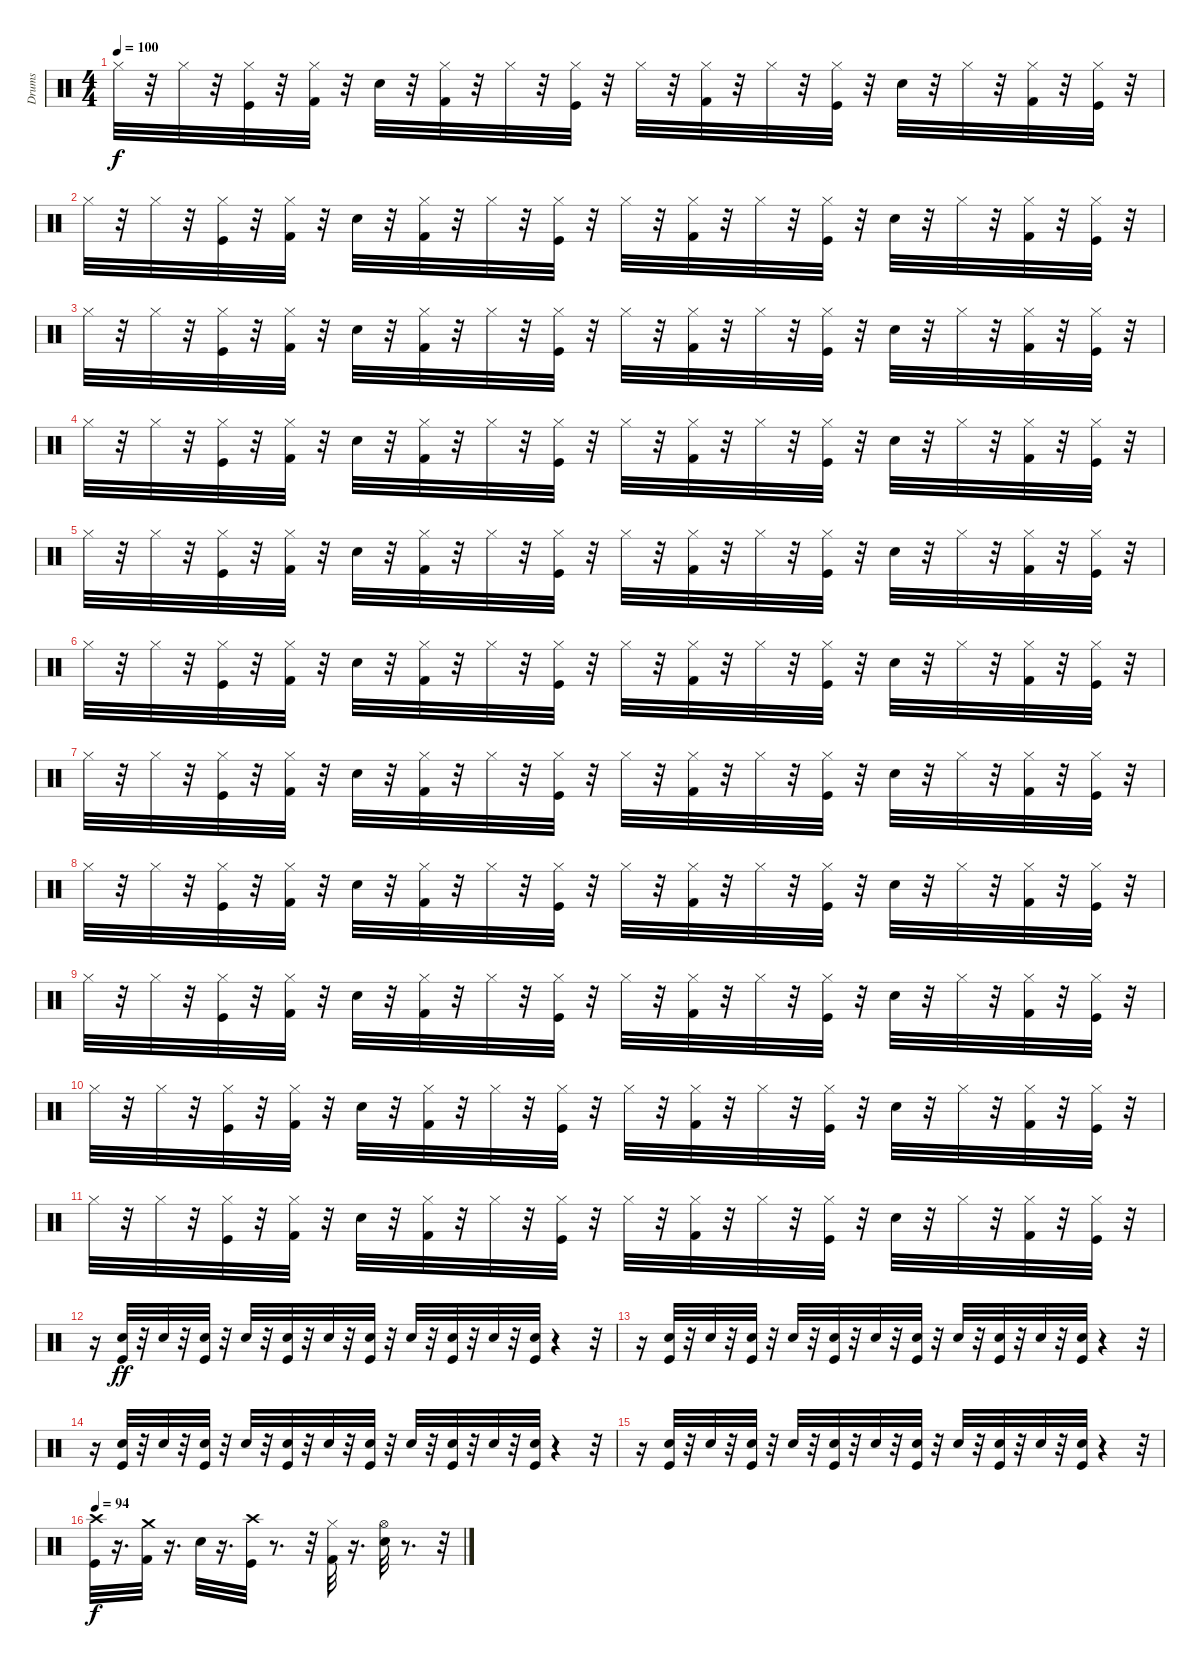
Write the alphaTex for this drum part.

\track ("Drums" "Drums") {instrument percussion}
\staff {score}
\articulation defaults
\ts (4 4)
\tempo 100
\clef neutral
\ks c "Hi-Hat (closed)".32{dy f}
r.32 "Hi-Hat (closed)".32 r.32 ("Hi-Hat (closed)" "Kick (hit)").32 r.32 ("Hi-Hat (closed)" "Kick (hit) 2").32 r.32 "Electric Snare (hit)".32 r.32 ("Hi-Hat (closed)" "Kick (hit) 2").32 r.32 "Hi-Hat (closed)".32 r.32 ("Hi-Hat (closed)" "Kick (hit)").32 r.32 "Hi-Hat (closed)".32 r.32 ("Hi-Hat (closed)" "Kick (hit) 2").32 r.32 "Hi-Hat (closed)".32 r.32 ("Hi-Hat (closed)" "Kick (hit)").32 r.32 "Electric Snare (hit)".32 r.32 "Hi-Hat (closed)".32 r.32 ("Hi-Hat (closed)" "Kick (hit) 2").32 r.32 ("Hi-Hat (closed)" "Kick (hit)").32 r.32 |
"Hi-Hat (closed)".32 r.32 "Hi-Hat (closed)".32 r.32 ("Hi-Hat (closed)" "Kick (hit)").32 r.32 ("Hi-Hat (closed)" "Kick (hit) 2").32 r.32 "Electric Snare (hit)".32 r.32 ("Hi-Hat (closed)" "Kick (hit) 2").32 r.32 "Hi-Hat (closed)".32 r.32 ("Hi-Hat (closed)" "Kick (hit)").32 r.32 "Hi-Hat (closed)".32 r.32 ("Hi-Hat (closed)" "Kick (hit) 2").32 r.32 "Hi-Hat (closed)".32 r.32 ("Hi-Hat (closed)" "Kick (hit)").32 r.32 "Electric Snare (hit)".32 r.32 "Hi-Hat (closed)".32 r.32 ("Hi-Hat (closed)" "Kick (hit) 2").32 r.32 ("Hi-Hat (closed)" "Kick (hit)").32 r.32 |
"Hi-Hat (closed)".32 r.32 "Hi-Hat (closed)".32 r.32 ("Hi-Hat (closed)" "Kick (hit)").32 r.32 ("Hi-Hat (closed)" "Kick (hit) 2").32 r.32 "Electric Snare (hit)".32 r.32 ("Hi-Hat (closed)" "Kick (hit) 2").32 r.32 "Hi-Hat (closed)".32 r.32 ("Hi-Hat (closed)" "Kick (hit)").32 r.32 "Hi-Hat (closed)".32 r.32 ("Hi-Hat (closed)" "Kick (hit) 2").32 r.32 "Hi-Hat (closed)".32 r.32 ("Hi-Hat (closed)" "Kick (hit)").32 r.32 "Electric Snare (hit)".32 r.32 "Hi-Hat (closed)".32 r.32 ("Hi-Hat (closed)" "Kick (hit) 2").32 r.32 ("Hi-Hat (closed)" "Kick (hit)").32 r.32 |
"Hi-Hat (closed)".32 r.32 "Hi-Hat (closed)".32 r.32 ("Hi-Hat (closed)" "Kick (hit)").32 r.32 ("Hi-Hat (closed)" "Kick (hit) 2").32 r.32 "Electric Snare (hit)".32 r.32 ("Hi-Hat (closed)" "Kick (hit) 2").32 r.32 "Hi-Hat (closed)".32 r.32 ("Hi-Hat (closed)" "Kick (hit)").32 r.32 "Hi-Hat (closed)".32 r.32 ("Hi-Hat (closed)" "Kick (hit) 2").32 r.32 "Hi-Hat (closed)".32 r.32 ("Hi-Hat (closed)" "Kick (hit)").32 r.32 "Electric Snare (hit)".32 r.32 "Hi-Hat (closed)".32 r.32 ("Hi-Hat (closed)" "Kick (hit) 2").32 r.32 ("Hi-Hat (closed)" "Kick (hit)").32 r.32 |
"Hi-Hat (closed)".32 r.32 "Hi-Hat (closed)".32 r.32 ("Hi-Hat (closed)" "Kick (hit)").32 r.32 ("Hi-Hat (closed)" "Kick (hit) 2").32 r.32 "Electric Snare (hit)".32 r.32 ("Hi-Hat (closed)" "Kick (hit) 2").32 r.32 "Hi-Hat (closed)".32 r.32 ("Hi-Hat (closed)" "Kick (hit)").32 r.32 "Hi-Hat (closed)".32 r.32 ("Hi-Hat (closed)" "Kick (hit) 2").32 r.32 "Hi-Hat (closed)".32 r.32 ("Hi-Hat (closed)" "Kick (hit)").32 r.32 "Electric Snare (hit)".32 r.32 "Hi-Hat (closed)".32 r.32 ("Hi-Hat (closed)" "Kick (hit) 2").32 r.32 ("Hi-Hat (closed)" "Kick (hit)").32 r.32 |
"Hi-Hat (closed)".32 r.32 "Hi-Hat (closed)".32 r.32 ("Hi-Hat (closed)" "Kick (hit)").32 r.32 ("Hi-Hat (closed)" "Kick (hit) 2").32 r.32 "Electric Snare (hit)".32 r.32 ("Hi-Hat (closed)" "Kick (hit) 2").32 r.32 "Hi-Hat (closed)".32 r.32 ("Hi-Hat (closed)" "Kick (hit)").32 r.32 "Hi-Hat (closed)".32 r.32 ("Hi-Hat (closed)" "Kick (hit) 2").32 r.32 "Hi-Hat (closed)".32 r.32 ("Hi-Hat (closed)" "Kick (hit)").32 r.32 "Electric Snare (hit)".32 r.32 "Hi-Hat (closed)".32 r.32 ("Hi-Hat (closed)" "Kick (hit) 2").32 r.32 ("Hi-Hat (closed)" "Kick (hit)").32 r.32 |
"Hi-Hat (closed)".32 r.32 "Hi-Hat (closed)".32 r.32 ("Hi-Hat (closed)" "Kick (hit)").32 r.32 ("Hi-Hat (closed)" "Kick (hit) 2").32 r.32 "Electric Snare (hit)".32 r.32 ("Hi-Hat (closed)" "Kick (hit) 2").32 r.32 "Hi-Hat (closed)".32 r.32 ("Hi-Hat (closed)" "Kick (hit)").32 r.32 "Hi-Hat (closed)".32 r.32 ("Hi-Hat (closed)" "Kick (hit) 2").32 r.32 "Hi-Hat (closed)".32 r.32 ("Hi-Hat (closed)" "Kick (hit)").32 r.32 "Electric Snare (hit)".32 r.32 "Hi-Hat (closed)".32 r.32 ("Hi-Hat (closed)" "Kick (hit) 2").32 r.32 ("Hi-Hat (closed)" "Kick (hit)").32 r.32 |
"Hi-Hat (closed)".32 r.32 "Hi-Hat (closed)".32 r.32 ("Hi-Hat (closed)" "Kick (hit)").32 r.32 ("Hi-Hat (closed)" "Kick (hit) 2").32 r.32 "Electric Snare (hit)".32 r.32 ("Hi-Hat (closed)" "Kick (hit) 2").32 r.32 "Hi-Hat (closed)".32 r.32 ("Hi-Hat (closed)" "Kick (hit)").32 r.32 "Hi-Hat (closed)".32 r.32 ("Hi-Hat (closed)" "Kick (hit) 2").32 r.32 "Hi-Hat (closed)".32 r.32 ("Hi-Hat (closed)" "Kick (hit)").32 r.32 "Electric Snare (hit)".32 r.32 "Hi-Hat (closed)".32 r.32 ("Hi-Hat (closed)" "Kick (hit) 2").32 r.32 ("Hi-Hat (closed)" "Kick (hit)").32 r.32 |
"Hi-Hat (closed)".32 r.32 "Hi-Hat (closed)".32 r.32 ("Hi-Hat (closed)" "Kick (hit)").32 r.32 ("Hi-Hat (closed)" "Kick (hit) 2").32 r.32 "Electric Snare (hit)".32 r.32 ("Hi-Hat (closed)" "Kick (hit) 2").32 r.32 "Hi-Hat (closed)".32 r.32 ("Hi-Hat (closed)" "Kick (hit)").32 r.32 "Hi-Hat (closed)".32 r.32 ("Hi-Hat (closed)" "Kick (hit) 2").32 r.32 "Hi-Hat (closed)".32 r.32 ("Hi-Hat (closed)" "Kick (hit)").32 r.32 "Electric Snare (hit)".32 r.32 "Hi-Hat (closed)".32 r.32 ("Hi-Hat (closed)" "Kick (hit) 2").32 r.32 ("Hi-Hat (closed)" "Kick (hit)").32 r.32 |
"Hi-Hat (closed)".32 r.32 "Hi-Hat (closed)".32 r.32 ("Hi-Hat (closed)" "Kick (hit)").32 r.32 ("Hi-Hat (closed)" "Kick (hit) 2").32 r.32 "Electric Snare (hit)".32 r.32 ("Hi-Hat (closed)" "Kick (hit) 2").32 r.32 "Hi-Hat (closed)".32 r.32 ("Hi-Hat (closed)" "Kick (hit)").32 r.32 "Hi-Hat (closed)".32 r.32 ("Hi-Hat (closed)" "Kick (hit) 2").32 r.32 "Hi-Hat (closed)".32 r.32 ("Hi-Hat (closed)" "Kick (hit)").32 r.32 "Electric Snare (hit)".32 r.32 "Hi-Hat (closed)".32 r.32 ("Hi-Hat (closed)" "Kick (hit) 2").32 r.32 ("Hi-Hat (closed)" "Kick (hit)").32 r.32 |
"Hi-Hat (closed)".32 r.32 "Hi-Hat (closed)".32 r.32 ("Hi-Hat (closed)" "Kick (hit)").32 r.32 ("Hi-Hat (closed)" "Kick (hit) 2").32 r.32 "Electric Snare (hit)".32 r.32 ("Hi-Hat (closed)" "Kick (hit) 2").32 r.32 "Hi-Hat (closed)".32 r.32 ("Hi-Hat (closed)" "Kick (hit)").32 r.32 "Hi-Hat (closed)".32 r.32 ("Hi-Hat (closed)" "Kick (hit) 2").32 r.32 "Hi-Hat (closed)".32 r.32 ("Hi-Hat (closed)" "Kick (hit)").32 r.32 "Electric Snare (hit)".32 r.32 "Hi-Hat (closed)".32 r.32 ("Hi-Hat (closed)" "Kick (hit) 2").32 r.32 ("Kick (hit)" "Hi-Hat (closed)").32 r.32 |
r.16 ("Snare (hit) 2" "Kick (hit)").32{dy ff} r.32 "Electric Snare (hit)".32 r.32 ("Electric Snare (hit)" "Kick (hit)").32 r.32 "Electric Snare (hit)".32 r.32 ("Electric Snare (hit)" "Kick (hit)").32 r.32 "Electric Snare (hit)".32 r.32 ("Electric Snare (hit)" "Kick (hit)").32 r.32 "Electric Snare (hit)".32 r.32 ("Electric Snare (hit)" "Kick (hit)").32 r.32 "Electric Snare (hit)".32 r.32 ("Electric Snare (hit)" "Kick (hit)").32 r.4 r.32 |
r.16 ("Snare (hit) 2" "Kick (hit)").32 r.32 "Electric Snare (hit)".32 r.32 ("Electric Snare (hit)" "Kick (hit)").32 r.32 "Electric Snare (hit)".32 r.32 ("Electric Snare (hit)" "Kick (hit)").32 r.32 "Electric Snare (hit)".32 r.32 ("Electric Snare (hit)" "Kick (hit)").32 r.32 "Electric Snare (hit)".32 r.32 ("Electric Snare (hit)" "Kick (hit)").32 r.32 "Electric Snare (hit)".32 r.32 ("Electric Snare (hit)" "Kick (hit)").32 r.4 r.32 |
r.16 ("Snare (hit) 2" "Kick (hit)").32 r.32 "Electric Snare (hit)".32 r.32 ("Electric Snare (hit)" "Kick (hit)").32 r.32 "Electric Snare (hit)".32 r.32 ("Electric Snare (hit)" "Kick (hit)").32 r.32 "Electric Snare (hit)".32 r.32 ("Electric Snare (hit)" "Kick (hit)").32 r.32 "Electric Snare (hit)".32 r.32 ("Electric Snare (hit)" "Kick (hit)").32 r.32 "Electric Snare (hit)".32 r.32 ("Electric Snare (hit)" "Kick (hit)").32 r.4 r.32 |
r.16 ("Snare (hit) 2" "Kick (hit)").32 r.32 "Electric Snare (hit)".32 r.32 ("Electric Snare (hit)" "Kick (hit)").32 r.32 "Electric Snare (hit)".32 r.32 ("Electric Snare (hit)" "Kick (hit)").32 r.32 "Electric Snare (hit)".32 r.32 ("Electric Snare (hit)" "Kick (hit)").32 r.32 "Electric Snare (hit)".32 r.32 ("Electric Snare (hit)" "Kick (hit)").32 r.32 "Electric Snare (hit)".32 r.32 ("Kick (hit)" "Electric Snare (hit)").32 r.4 r.32 |
\tempo 94
("Crash high (hit)" "Kick (hit)").32{dy f} r.16{d} ("Crash medium (hit)" "Kick (hit) 2").32 r.16{d} "Electric Snare (hit)".32 r.16{d} ("Crash high (hit)" "Kick (hit)").32 r.8{d} r.32 ("Hi-Hat (closed)" "Kick (hit) 2").32 r.16{d} ("Hi-Hat (open)" "Electric Snare (hit)").32 r.8{d} r.32
